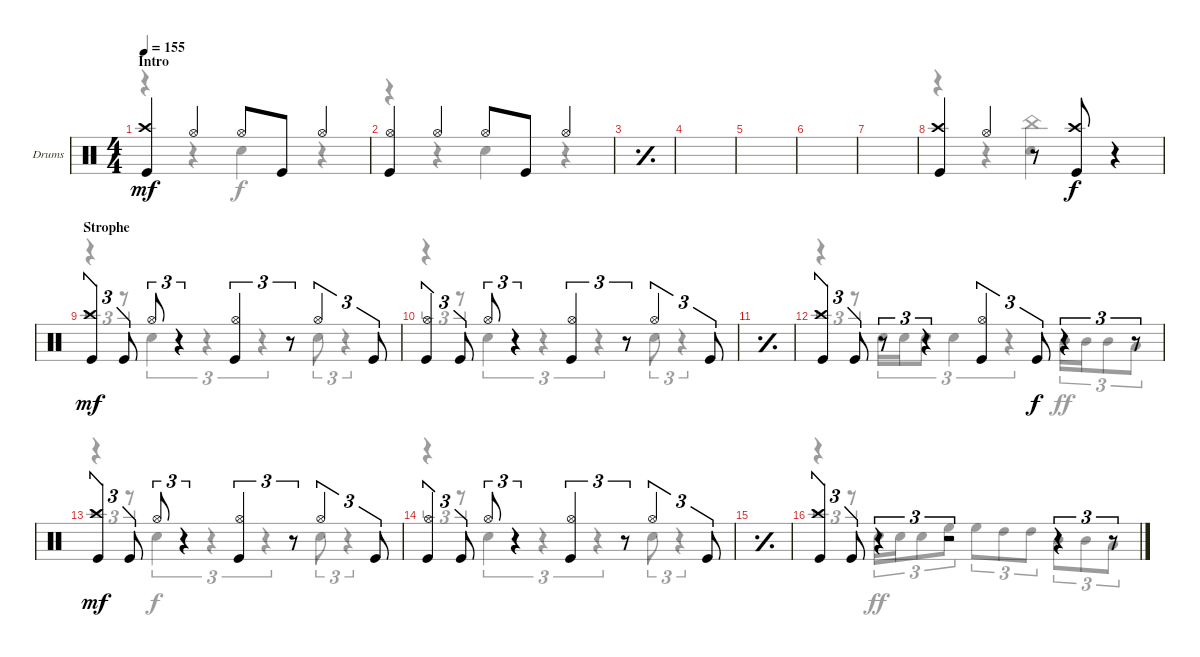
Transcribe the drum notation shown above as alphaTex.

\defaultSystemsLayout 4
\bracketExtendMode groupsimilarinstruments
\firstSystemTrackNameOrientation horizontal
\otherSystemsTrackNameOrientation horizontal
\track ("Drumkit" "Drums") {instrument percussion}
\staff {score}
\articulation defaults
\voice
\ts (4 4)
\section ("" "Intro")
\tempo 155
\clef neutral
\ks c
("Kick (hit)" "Crash high (hit)").4{dy mf} "Hi-Hat (open)".4 "Hi-Hat (open)".8 "Kick (hit)".8 "Hi-Hat (open)".4 |
("Kick (hit)" "Hi-Hat (open)").4 "Hi-Hat (open)".4 "Hi-Hat (open)".8 "Kick (hit)".8 "Hi-Hat (open)".4 |
\simile simple
|
|
|
|
|
\simile none
("Kick (hit)" "Crash high (hit)").4 "Hi-Hat (open)".4 r.8 ("Kick (hit)" "Crash high (hit)").8{dy f} r.4 |
\section ("" "Strophe")
("Kick (hit)" "Crash high (hit)").4{tu (3 2) dy mf} "Kick (hit)".8{tu (3 2)} "Hi-Hat (open)".8{tu (3 2)} r.4{tu (3 2)} ("Kick (hit)" "Hi-Hat (open)").4{tu (3 2)} r.8{tu (3 2)} "Hi-Hat (open)".4{tu (3 2)} "Kick (hit)".8{tu (3 2)} |
("Kick (hit)" "Hi-Hat (open)").4{tu (3 2)} "Kick (hit)".8{tu (3 2)} "Hi-Hat (open)".8{tu (3 2)} r.4{tu (3 2)} ("Kick (hit)" "Hi-Hat (open)").4{tu (3 2)} r.8{tu (3 2)} "Hi-Hat (open)".4{tu (3 2)} "Kick (hit)".8{tu (3 2)} |
\simile simple
|
\simile none
("Kick (hit)" "Crash high (hit)").4{tu (3 2)} "Kick (hit)".8{tu (3 2)} r.8{tu (3 2)} r.4{tu (3 2)} ("Kick (hit)" "Hi-Hat (open)").4{tu (3 2)} "Kick (hit)".8{tu (3 2) dy f} r.4{tu (3 2)} r.8{tu (3 2)} |
("Kick (hit)" "Crash high (hit)").4{tu (3 2) dy mf} "Kick (hit)".8{tu (3 2)} "Hi-Hat (open)".8{tu (3 2)} r.4{tu (3 2)} ("Kick (hit)" "Hi-Hat (open)").4{tu (3 2)} r.8{tu (3 2)} "Hi-Hat (open)".4{tu (3 2)} "Kick (hit)".8{tu (3 2)} |
("Kick (hit)" "Hi-Hat (open)").4{tu (3 2)} "Kick (hit)".8{tu (3 2)} "Hi-Hat (open)".8{tu (3 2)} r.4{tu (3 2)} ("Kick (hit)" "Hi-Hat (open)").4{tu (3 2)} r.8{tu (3 2)} "Hi-Hat (open)".4{tu (3 2)} "Kick (hit)".8{tu (3 2)} |
\simile simple
|
\simile none
("Kick (hit)" "Crash high (hit)").4{tu (3 2)} "Kick (hit)".8{tu (3 2)} r.4{tu (3 2)} r.2{tu (3 2)} r.4{tu (3 2)} r.8{tu (3 2)}
\voice
\clef neutral
\ottava regular
\simile none
\ks c
r.4{dy f} r.4 "Snare (hit) 2".4 r.4 |
r.4 r.4 "Snare (hit) 2".4 r.4 |
\simile simple
|
|
|
|
|
\simile none
r.4 r.4 ("Snare (hit) 2" "China (hit)").4 r.4 |
r.4{tu (3 2)} r.8{tu (3 2)} "Snare (hit) 2".4{tu (3 2)} r.4{tu (3 2)} r.4{tu (3 2)} "Snare (hit) 2".8{tu (3 2)} r.4{tu (3 2)} |
r.4{tu (3 2)} r.8{tu (3 2)} "Snare (hit) 2".4{tu (3 2)} r.4{tu (3 2)} r.4{tu (3 2)} "Snare (hit) 2".8{tu (3 2)} r.4{tu (3 2)} |
\simile simple
|
\simile none
r.4{tu (3 2)} r.8{tu (3 2)} "Snare (hit) 2".16{tu (3 2)} "Snare (hit) 2".16{tu (3 2)} "Snare (hit) 2".8{tu (3 2)} "Snare (hit) 2".4{tu (3 2)} r.4{tu (3 2)} "Mid Tom (hit)".16{tu (3 2) dy ff} "Mid Tom (hit)".16{tu (3 2)} "Mid Tom (hit)".8{tu (3 2)} "Low Tom (hit)".8{tu (3 2)} |
r.4{tu (3 2)} r.8{tu (3 2)} "Snare (hit) 2".4{tu (3 2) dy f} r.4{tu (3 2)} r.4{tu (3 2)} "Snare (hit) 2".8{tu (3 2)} r.4{tu (3 2)} |
r.4{tu (3 2)} r.8{tu (3 2)} "Snare (hit) 2".4{tu (3 2)} r.4{tu (3 2)} r.4{tu (3 2)} "Snare (hit) 2".8{tu (3 2)} r.4{tu (3 2)} |
\simile simple
|
\simile none
r.4{tu (3 2)} r.8{tu (3 2)} "Snare (hit) 2".16{tu (3 2) dy ff} "Snare (hit) 2".16{tu (3 2)} "Snare (hit) 2".8{tu (3 2)} "High Floor Tom (hit)".8{tu (3 2)} "High Floor Tom (hit)".8{tu (3 2)} "High Tom (hit)".8{tu (3 2)} "High Tom (hit)".8{tu (3 2)} "Mid Tom (hit)".8{tu (3 2)} "Mid Tom (hit)".8{tu (3 2)} "Low Tom (hit)".8{tu (3 2)}
